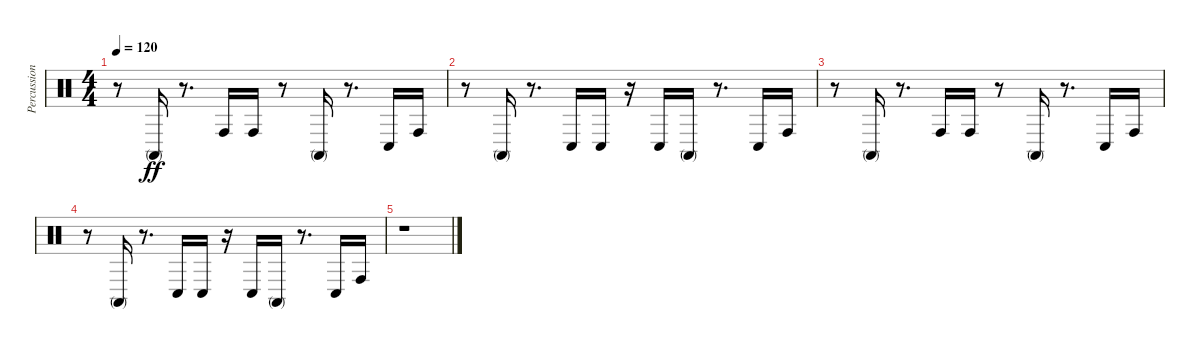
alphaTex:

\track ("Percussion" "Percussion") {instrument percussion}
\staff {score}
\articulation defaults
\ts (4 4)
\tempo 120
\clef neutral
\ks c
r.8{dy ff} "Conga high (mute)".16 r.8{d} "Conga high (hit)".16 "Conga high (hit)".16 r.8 "Conga high (mute)".16 r.8{d} "Conga low (hit)".16 "Conga high (hit)".16 |
r.8 "Conga high (mute)".16 r.8{d} "Conga low (hit)".16 "Conga low (hit)".16 r.16 "Conga low (hit)".16 "Conga high (mute)".16 r.8{d} "Conga low (hit)".16 "Conga high (hit)".16 |
r.8 "Conga high (mute)".16 r.8{d} "Conga high (hit)".16 "Conga high (hit)".16 r.8 "Conga high (mute)".16 r.8{d} "Conga low (hit)".16 "Conga high (hit)".16 |
r.8 "Conga high (mute)".16 r.8{d} "Conga low (hit)".16 "Conga low (hit)".16 r.16 "Conga low (hit)".16 "Conga high (mute)".16 r.8{d} "Conga low (hit)".16 "Conga high (hit)".16 |
r.1
